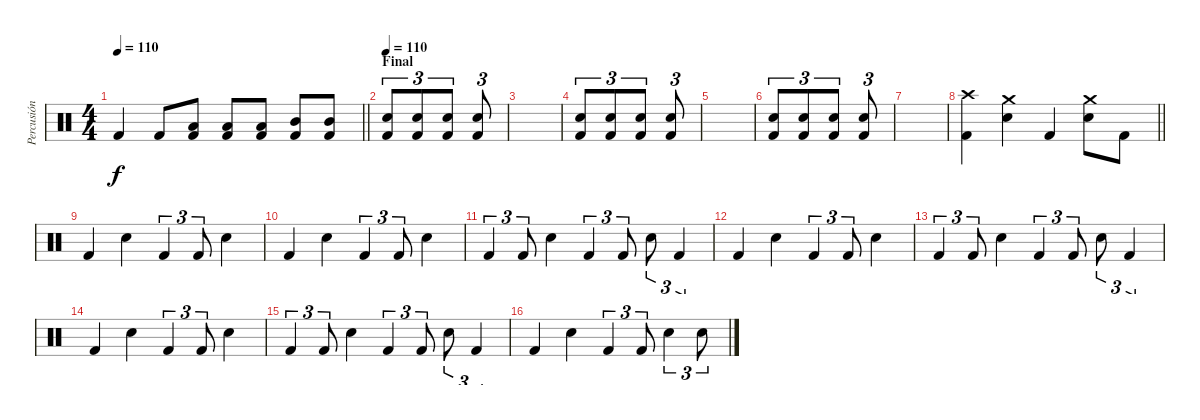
\track ("Percusión" "Percusión") {instrument percussion}
\staff {score}
\articulation defaults
\ts (4 4)
\tempo 110
\clef neutral
\barLineRight lightlight
\ks c "Kick (hit) 2".4{dy f} "Kick (hit) 2".8
("Low Tom (hit)" "Kick (hit) 2").8 ("Low Tom (hit)" "Kick (hit) 2").8 ("Low Tom (hit)" "Kick (hit) 2").8 ("Mid Tom (hit)" "Kick (hit) 2").8 ("Mid Tom (hit)" "Kick (hit) 2").8 |
\section ("" "Final")
\tempo 110
("Kick (hit) 2" "Electric Snare (hit)").8{tu (3 2)} ("Kick (hit) 2" "Electric Snare (hit)").8{tu (3 2)} ("Kick (hit) 2" "Electric Snare (hit)").8{tu (3 2)} ("Kick (hit) 2" "Electric Snare (hit)").8{tu (3 2)} |
|
("Kick (hit) 2" "Electric Snare (hit)").8{tu (3 2)} ("Kick (hit) 2" "Electric Snare (hit)").8{tu (3 2)} ("Kick (hit) 2" "Electric Snare (hit)").8{tu (3 2)} ("Kick (hit) 2" "Electric Snare (hit)").8{tu (3 2)} |
|
("Kick (hit) 2" "Electric Snare (hit)").8{tu (3 2)} ("Kick (hit) 2" "Electric Snare (hit)").8{tu (3 2)} ("Kick (hit) 2" "Electric Snare (hit)").8{tu (3 2)} ("Kick (hit) 2" "Electric Snare (hit)").8{tu (3 2)} |
|
\barLineRight lightlight
("Crash high (hit)" "Kick (hit) 2").4 ("Crash medium (hit)" "Electric Snare (hit)").4 "Kick (hit) 2".4 ("Crash medium (hit)" "Electric Snare (hit)").8 "Kick (hit) 2".8 |
"Kick (hit) 2".4 "Electric Snare (hit)".4 "Kick (hit) 2".4{tu (3 2)} "Kick (hit) 2".8{tu (3 2)} "Electric Snare (hit)".4 |
"Kick (hit) 2".4 "Electric Snare (hit)".4 "Kick (hit) 2".4{tu (3 2)} "Kick (hit) 2".8{tu (3 2)} "Electric Snare (hit)".4 |
"Kick (hit) 2".4{tu (3 2)} "Kick (hit) 2".8{tu (3 2)} "Electric Snare (hit)".4 "Kick (hit) 2".4{tu (3 2)} "Kick (hit) 2".8{tu (3 2)} "Electric Snare (hit)".8{tu (3 2)} "Kick (hit) 2".4{tu (3 2)} |
"Kick (hit) 2".4 "Electric Snare (hit)".4 "Kick (hit) 2".4{tu (3 2)} "Kick (hit) 2".8{tu (3 2)} "Electric Snare (hit)".4 |
"Kick (hit) 2".4{tu (3 2)} "Kick (hit) 2".8{tu (3 2)} "Electric Snare (hit)".4 "Kick (hit) 2".4{tu (3 2)} "Kick (hit) 2".8{tu (3 2)} "Electric Snare (hit)".8{tu (3 2)} "Kick (hit) 2".4{tu (3 2)} |
"Kick (hit) 2".4 "Electric Snare (hit)".4 "Kick (hit) 2".4{tu (3 2)} "Kick (hit) 2".8{tu (3 2)} "Electric Snare (hit)".4 |
"Kick (hit) 2".4{tu (3 2)} "Kick (hit) 2".8{tu (3 2)} "Electric Snare (hit)".4 "Kick (hit) 2".4{tu (3 2)} "Kick (hit) 2".8{tu (3 2)} "Electric Snare (hit)".8{tu (3 2)} "Kick (hit) 2".4{tu (3 2)} |
"Kick (hit) 2".4 "Electric Snare (hit)".4 "Kick (hit) 2".4{tu (3 2)} "Kick (hit) 2".8{tu (3 2)} "Electric Snare (hit)".4{tu (3 2)} "Electric Snare (hit)".8{tu (3 2)}
